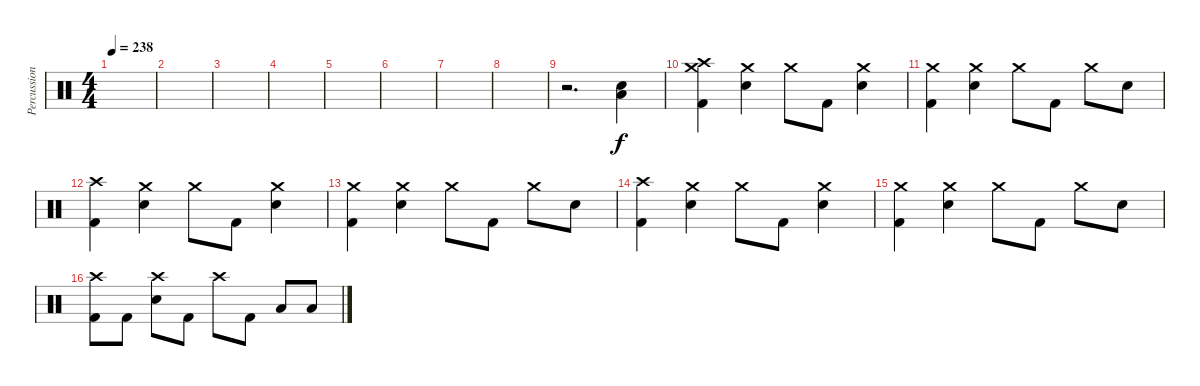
\track ("Percussion" "Percussion") {instrument percussion}
\staff {score}
\articulation defaults
\ts (4 4)
\tempo 238
\clef neutral
\ks c
|
|
|
|
|
|
|
|
r.2{d} ("Electric Snare (hit)" "Low Floor Tom (hit)").4 |
("Crash high (hit)" "Crash medium (hit)" "Kick (hit) 2").4 ("Crash medium (hit)" "Electric Snare (hit)").4 "Crash medium (hit)".8 "Kick (hit) 2".8 ("Crash medium (hit)" "Electric Snare (hit)").4 |
("Crash medium (hit)" "Kick (hit) 2").4 ("Crash medium (hit)" "Electric Snare (hit)").4 "Crash medium (hit)".8 "Kick (hit) 2".8 "Crash medium (hit)".8 "Electric Snare (hit)".8 |
("Crash high (hit)" "Kick (hit) 2").4 ("Crash medium (hit)" "Electric Snare (hit)").4 "Crash medium (hit)".8 "Kick (hit) 2".8 ("Crash medium (hit)" "Electric Snare (hit)").4 |
("Crash medium (hit)" "Kick (hit) 2").4 ("Crash medium (hit)" "Electric Snare (hit)").4 "Crash medium (hit)".8 "Kick (hit) 2".8 "Crash medium (hit)".8 "Electric Snare (hit)".8 |
("Crash high (hit)" "Kick (hit) 2").4 ("Crash medium (hit)" "Electric Snare (hit)").4 "Crash medium (hit)".8 "Kick (hit) 2".8 ("Crash medium (hit)" "Electric Snare (hit)").4 |
("Crash medium (hit)" "Kick (hit) 2").4 ("Crash medium (hit)" "Electric Snare (hit)").4 "Crash medium (hit)".8 "Kick (hit) 2".8 "Crash medium (hit)".8 "Electric Snare (hit)".8 |
("Crash high (hit)" "Kick (hit) 2").8 "Kick (hit) 2".8 ("Crash high (hit)" "Electric Snare (hit)").8 "Kick (hit) 2".8 "Crash high (hit)".8 "Kick (hit) 2".8 "Low Tom (hit)".8 "Low Tom (hit)".8
